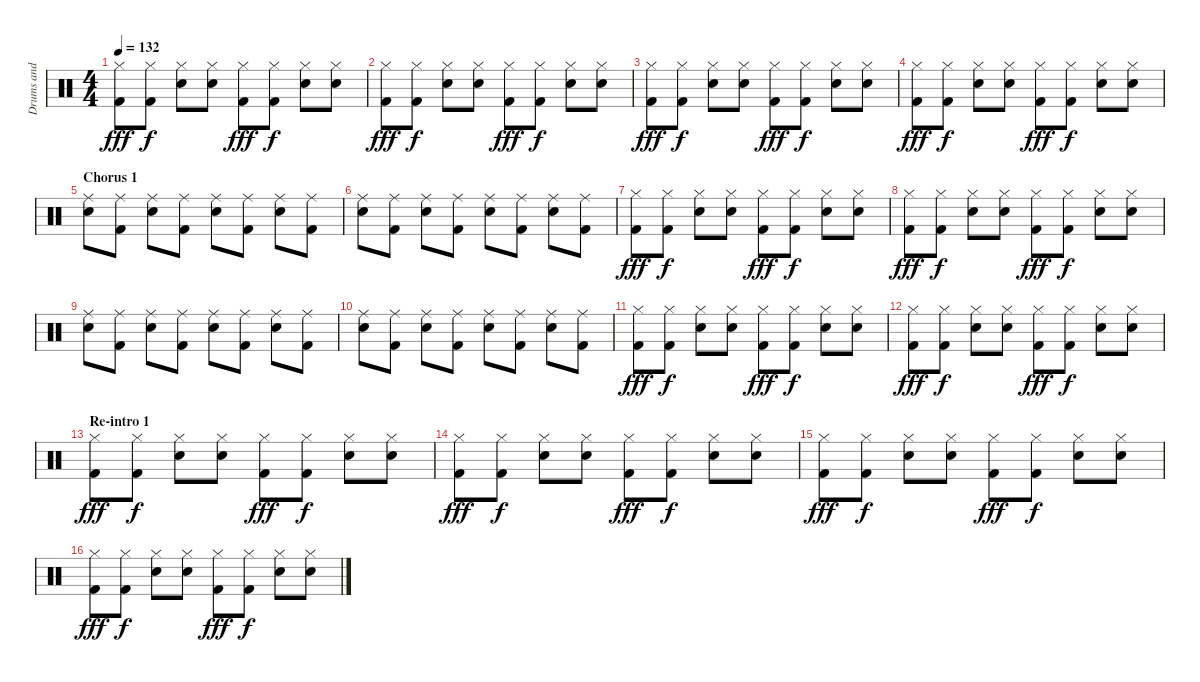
\track ("Drums and Percussion" "Drums and ") {instrument percussion}
\staff {score}
\articulation defaults
\ts (4 4)
\tempo 132
\clef neutral
\ks c
("Hi-Hat (closed)" "Kick (hit) 2").8{dy fff} ("Hi-Hat (closed)" "Kick (hit) 2").8{dy f} ("Hi-Hat (closed)" "Hand Clap (hit)").8 ("Hi-Hat (closed)" "Hand Clap (hit)").8 ("Hi-Hat (closed)" "Kick (hit) 2").8{dy fff} ("Hi-Hat (closed)" "Kick (hit) 2").8{dy f} ("Hi-Hat (closed)" "Hand Clap (hit)").8 ("Hi-Hat (closed)" "Hand Clap (hit)").8 |
("Hi-Hat (closed)" "Kick (hit) 2").8{dy fff} ("Hi-Hat (closed)" "Kick (hit) 2").8{dy f} ("Hi-Hat (closed)" "Hand Clap (hit)").8 ("Hi-Hat (closed)" "Hand Clap (hit)").8 ("Hi-Hat (closed)" "Kick (hit) 2").8{dy fff} ("Hi-Hat (closed)" "Kick (hit) 2").8{dy f} ("Hi-Hat (closed)" "Hand Clap (hit)").8 ("Hi-Hat (closed)" "Hand Clap (hit)").8 |
("Hi-Hat (closed)" "Kick (hit) 2").8{dy fff} ("Hi-Hat (closed)" "Kick (hit) 2").8{dy f} ("Hi-Hat (closed)" "Hand Clap (hit)").8 ("Hi-Hat (closed)" "Hand Clap (hit)").8 ("Hi-Hat (closed)" "Kick (hit) 2").8{dy fff} ("Hi-Hat (closed)" "Kick (hit) 2").8{dy f} ("Hi-Hat (closed)" "Hand Clap (hit)").8 ("Hi-Hat (closed)" "Hand Clap (hit)").8 |
("Hi-Hat (closed)" "Kick (hit) 2").8{dy fff} ("Hi-Hat (closed)" "Kick (hit) 2").8{dy f} ("Hi-Hat (closed)" "Hand Clap (hit)").8 ("Hi-Hat (closed)" "Hand Clap (hit)").8 ("Hi-Hat (closed)" "Kick (hit) 2").8{dy fff} ("Hi-Hat (closed)" "Kick (hit) 2").8{dy f} ("Hi-Hat (closed)" "Hand Clap (hit)").8 ("Hi-Hat (closed)" "Hand Clap (hit)").8 |
\section ("" "Chorus 1")
("Ride (middle)" "Electric Snare (hit)").8 ("Ride (middle)" "Kick (hit) 2").8 ("Ride (middle)" "Electric Snare (hit)").8 ("Ride (middle)" "Kick (hit) 2").8 ("Ride (middle)" "Electric Snare (hit)").8 ("Ride (middle)" "Kick (hit) 2").8 ("Ride (middle)" "Electric Snare (hit)").8 ("Ride (middle)" "Kick (hit) 2").8 |
("Ride (middle)" "Electric Snare (hit)").8 ("Ride (middle)" "Kick (hit) 2").8 ("Ride (middle)" "Electric Snare (hit)").8 ("Ride (middle)" "Kick (hit) 2").8 ("Ride (middle)" "Electric Snare (hit)").8 ("Ride (middle)" "Kick (hit) 2").8 ("Ride (middle)" "Electric Snare (hit)").8 ("Ride (middle)" "Kick (hit) 2").8 |
("Hi-Hat (closed)" "Kick (hit) 2").8{dy fff} ("Hi-Hat (closed)" "Kick (hit) 2").8{dy f} ("Hi-Hat (closed)" "Hand Clap (hit)").8 ("Hi-Hat (closed)" "Hand Clap (hit)").8 ("Hi-Hat (closed)" "Kick (hit) 2").8{dy fff} ("Hi-Hat (closed)" "Kick (hit) 2").8{dy f} ("Hi-Hat (closed)" "Hand Clap (hit)").8 ("Hi-Hat (closed)" "Hand Clap (hit)").8 |
("Hi-Hat (closed)" "Kick (hit) 2").8{dy fff} ("Hi-Hat (closed)" "Kick (hit) 2").8{dy f} ("Hi-Hat (closed)" "Hand Clap (hit)").8 ("Hi-Hat (closed)" "Hand Clap (hit)").8 ("Hi-Hat (closed)" "Kick (hit) 2").8{dy fff} ("Hi-Hat (closed)" "Kick (hit) 2").8{dy f} ("Hi-Hat (closed)" "Hand Clap (hit)").8 ("Hi-Hat (closed)" "Hand Clap (hit)").8 |
("Ride (middle)" "Electric Snare (hit)").8 ("Ride (middle)" "Kick (hit) 2").8 ("Ride (middle)" "Electric Snare (hit)").8 ("Ride (middle)" "Kick (hit) 2").8 ("Ride (middle)" "Electric Snare (hit)").8 ("Ride (middle)" "Kick (hit) 2").8 ("Ride (middle)" "Electric Snare (hit)").8 ("Ride (middle)" "Kick (hit) 2").8 |
("Ride (middle)" "Electric Snare (hit)").8 ("Ride (middle)" "Kick (hit) 2").8 ("Ride (middle)" "Electric Snare (hit)").8 ("Ride (middle)" "Kick (hit) 2").8 ("Ride (middle)" "Electric Snare (hit)").8 ("Ride (middle)" "Kick (hit) 2").8 ("Ride (middle)" "Electric Snare (hit)").8 ("Ride (middle)" "Kick (hit) 2").8 |
("Hi-Hat (closed)" "Kick (hit) 2").8{dy fff} ("Hi-Hat (closed)" "Kick (hit) 2").8{dy f} ("Hi-Hat (closed)" "Hand Clap (hit)").8 ("Hi-Hat (closed)" "Hand Clap (hit)").8 ("Hi-Hat (closed)" "Kick (hit) 2").8{dy fff} ("Hi-Hat (closed)" "Kick (hit) 2").8{dy f} ("Hi-Hat (closed)" "Hand Clap (hit)").8 ("Hi-Hat (closed)" "Hand Clap (hit)").8 |
("Hi-Hat (closed)" "Kick (hit) 2").8{dy fff} ("Hi-Hat (closed)" "Kick (hit) 2").8{dy f} ("Hi-Hat (closed)" "Hand Clap (hit)").8 ("Hi-Hat (closed)" "Hand Clap (hit)").8 ("Hi-Hat (closed)" "Kick (hit) 2").8{dy fff} ("Hi-Hat (closed)" "Kick (hit) 2").8{dy f} ("Hi-Hat (closed)" "Hand Clap (hit)").8 ("Hi-Hat (closed)" "Hand Clap (hit)").8 |
\section ("" "Re-intro 1")
("Hi-Hat (closed)" "Kick (hit) 2").8{dy fff} ("Hi-Hat (closed)" "Kick (hit) 2").8{dy f} ("Hi-Hat (closed)" "Hand Clap (hit)").8 ("Hi-Hat (closed)" "Hand Clap (hit)").8 ("Hi-Hat (closed)" "Kick (hit) 2").8{dy fff} ("Hi-Hat (closed)" "Kick (hit) 2").8{dy f} ("Hi-Hat (closed)" "Hand Clap (hit)").8 ("Hi-Hat (closed)" "Hand Clap (hit)").8 |
("Hi-Hat (closed)" "Kick (hit) 2").8{dy fff} ("Hi-Hat (closed)" "Kick (hit) 2").8{dy f} ("Hi-Hat (closed)" "Hand Clap (hit)").8 ("Hi-Hat (closed)" "Hand Clap (hit)").8 ("Hi-Hat (closed)" "Kick (hit) 2").8{dy fff} ("Hi-Hat (closed)" "Kick (hit) 2").8{dy f} ("Hi-Hat (closed)" "Hand Clap (hit)").8 ("Hi-Hat (closed)" "Hand Clap (hit)").8 |
("Hi-Hat (closed)" "Kick (hit) 2").8{dy fff} ("Hi-Hat (closed)" "Kick (hit) 2").8{dy f} ("Hi-Hat (closed)" "Hand Clap (hit)").8 ("Hi-Hat (closed)" "Hand Clap (hit)").8 ("Hi-Hat (closed)" "Kick (hit) 2").8{dy fff} ("Hi-Hat (closed)" "Kick (hit) 2").8{dy f} ("Hi-Hat (closed)" "Hand Clap (hit)").8 ("Hi-Hat (closed)" "Hand Clap (hit)").8 |
("Hi-Hat (closed)" "Kick (hit) 2").8{dy fff} ("Hi-Hat (closed)" "Kick (hit) 2").8{dy f} ("Hi-Hat (closed)" "Hand Clap (hit)").8 ("Hi-Hat (closed)" "Hand Clap (hit)").8 ("Hi-Hat (closed)" "Kick (hit) 2").8{dy fff} ("Hi-Hat (closed)" "Kick (hit) 2").8{dy f} ("Hi-Hat (closed)" "Hand Clap (hit)").8 ("Hi-Hat (closed)" "Hand Clap (hit)").8
